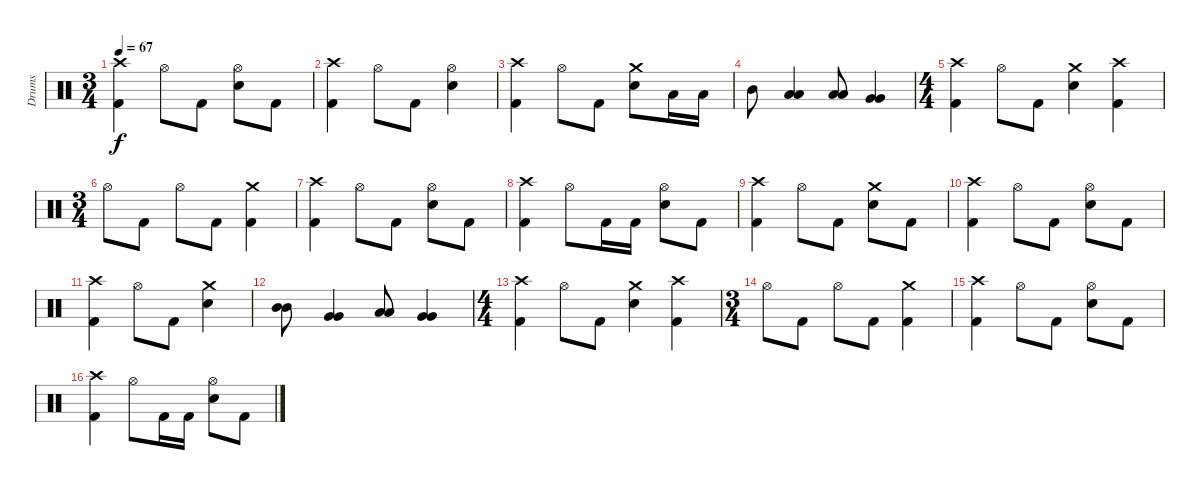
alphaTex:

\track ("Drums" "Drums") {instrument percussion}
\staff {score}
\articulation defaults
\ts (3 4)
\tempo 67
\clef neutral
\ks c
("Crash high (hit)" "Kick (hit) 2").4{dy f} "Hi-Hat (open)".8 "Kick (hit) 2".8 ("Hi-Hat (open)" "Electric Snare (hit)").8 "Kick (hit) 2".8 |
("Crash high (hit)" "Kick (hit) 2").4 "Hi-Hat (open)".8 "Kick (hit) 2".8 ("Hi-Hat (open)" "Electric Snare (hit)").4 |
("Crash high (hit)" "Kick (hit) 2").4 "Hi-Hat (open)".8 "Kick (hit) 2".8 ("Crash medium (hit)" "Electric Snare (hit)").8 "Low Tom (hit)".16 "Low Tom (hit)".16 |
"Mid Tom (hit)".8 ("Low Tom (hit)" "Low Tom (hit)").4 ("Low Tom (hit)" "Low Tom (hit)").8 ("Very Low Tom (hit)" "Very Low Tom (hit)").4 |
\ts (4 4)
("Crash high (hit)" "Kick (hit) 2").4 "Hi-Hat (open)".8 "Kick (hit) 2".8 ("Crash medium (hit)" "Electric Snare (hit)").4 ("Crash high (hit)" "Kick (hit) 2").4 |
\ts (3 4)
"Hi-Hat (open)".8 "Kick (hit) 2".8 "Hi-Hat (open)".8 "Kick (hit) 2".8 ("Crash medium (hit)" "Kick (hit) 2").4 |
("Crash high (hit)" "Kick (hit) 2").4 "Hi-Hat (open)".8 "Kick (hit) 2".8 ("Hi-Hat (open)" "Electric Snare (hit)").8 "Kick (hit) 2".8 |
("Crash high (hit)" "Kick (hit) 2").4 "Hi-Hat (open)".8 "Kick (hit) 2".16 "Kick (hit) 2".16 ("Hi-Hat (open)" "Electric Snare (hit)").8 "Kick (hit) 2".8 |
("Crash high (hit)" "Kick (hit) 2").4 "Hi-Hat (open)".8 "Kick (hit) 2".8 ("Crash medium (hit)" "Electric Snare (hit)").8 "Kick (hit) 2".8 |
("Crash high (hit)" "Kick (hit) 2").4 "Hi-Hat (open)".8 "Kick (hit) 2".8 ("Hi-Hat (open)" "Electric Snare (hit)").8 "Kick (hit) 2".8 |
("Crash high (hit)" "Kick (hit) 2").4 "Hi-Hat (open)".8 "Kick (hit) 2".8 ("Crash medium (hit)" "Electric Snare (hit)").4 |
("Mid Tom (hit)" "Mid Tom (hit)").8 ("Very Low Tom (hit)" "Very Low Tom (hit)").4 ("Low Tom (hit)" "Low Tom (hit)").8 ("Very Low Tom (hit)" "Very Low Tom (hit)").4 |
\ts (4 4)
("Crash high (hit)" "Kick (hit) 2").4 "Hi-Hat (open)".8 "Kick (hit) 2".8 ("Crash medium (hit)" "Electric Snare (hit)").4 ("Crash high (hit)" "Kick (hit) 2").4 |
\ts (3 4)
"Hi-Hat (open)".8 "Kick (hit) 2".8 "Hi-Hat (open)".8 "Kick (hit) 2".8 ("Crash medium (hit)" "Kick (hit) 2").4 |
("Crash high (hit)" "Kick (hit) 2").4 "Hi-Hat (open)".8 "Kick (hit) 2".8 ("Hi-Hat (open)" "Electric Snare (hit)").8 "Kick (hit) 2".8 |
("Crash high (hit)" "Kick (hit) 2").4 "Hi-Hat (open)".8 "Kick (hit) 2".16 "Kick (hit) 2".16 ("Hi-Hat (open)" "Electric Snare (hit)").8 "Kick (hit) 2".8
